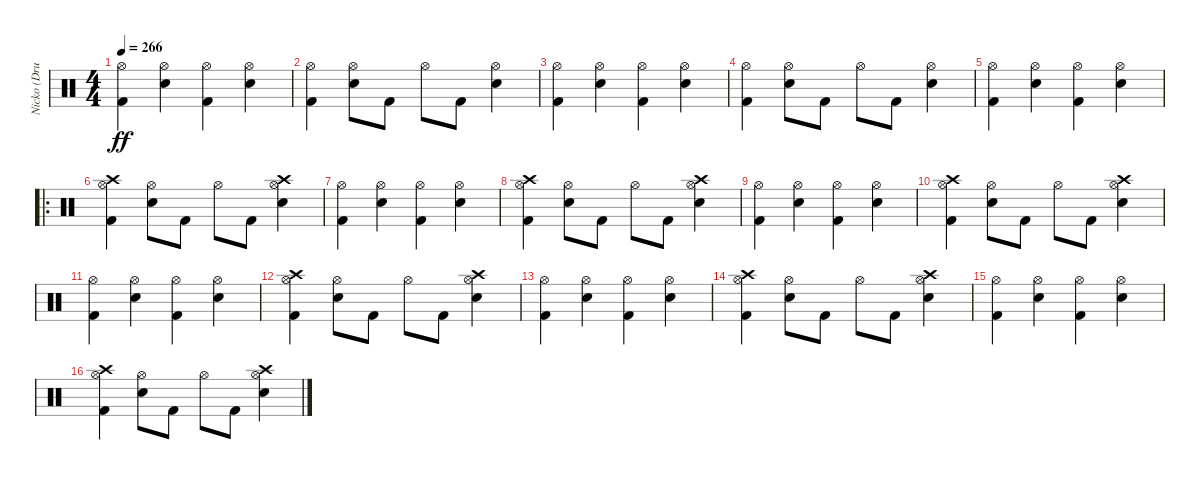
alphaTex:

\track ("Nicko (Drums)" "Nicko (Dru") {instrument percussion}
\staff {score}
\articulation defaults
\ts (4 4)
\tempo 266
\clef neutral
\ks c
("Kick (hit) 2" "Hi-Hat (open)").4{dy ff} ("Snare (hit) 2" "Hi-Hat (open)").4 ("Kick (hit) 2" "Hi-Hat (open)").4 ("Snare (hit) 2" "Hi-Hat (open)").4 |
("Kick (hit) 2" "Hi-Hat (open)").4 ("Snare (hit) 2" "Hi-Hat (open)").8 "Kick (hit) 2".8 "Hi-Hat (open)".8 "Kick (hit) 2".8 ("Snare (hit) 2" "Hi-Hat (open)").4 |
("Kick (hit) 2" "Hi-Hat (open)").4 ("Snare (hit) 2" "Hi-Hat (open)").4 ("Kick (hit) 2" "Hi-Hat (open)").4 ("Snare (hit) 2" "Hi-Hat (open)").4 |
("Kick (hit) 2" "Hi-Hat (open)").4 ("Snare (hit) 2" "Hi-Hat (open)").8 "Kick (hit) 2".8 "Hi-Hat (open)".8 "Kick (hit) 2".8 ("Snare (hit) 2" "Hi-Hat (open)").4 |
("Kick (hit) 2" "Hi-Hat (open)").4 ("Snare (hit) 2" "Hi-Hat (open)").4 ("Kick (hit) 2" "Hi-Hat (open)").4 ("Snare (hit) 2" "Hi-Hat (open)").4 |
\ro
("Kick (hit) 2" "Hi-Hat (open)" "Crash high (hit)").4 ("Snare (hit) 2" "Hi-Hat (open)").8 "Kick (hit) 2".8 "Hi-Hat (open)".8 "Kick (hit) 2".8 ("Snare (hit) 2" "Hi-Hat (open)" "Crash high (hit)").4 |
("Kick (hit) 2" "Hi-Hat (open)").4 ("Snare (hit) 2" "Hi-Hat (open)").4 ("Kick (hit) 2" "Hi-Hat (open)").4 ("Snare (hit) 2" "Hi-Hat (open)").4 |
("Kick (hit) 2" "Hi-Hat (open)" "Crash high (hit)").4 ("Snare (hit) 2" "Hi-Hat (open)").8 "Kick (hit) 2".8 "Hi-Hat (open)".8 "Kick (hit) 2".8 ("Snare (hit) 2" "Hi-Hat (open)" "Crash high (hit)").4 |
("Kick (hit) 2" "Hi-Hat (open)").4 ("Snare (hit) 2" "Hi-Hat (open)").4 ("Kick (hit) 2" "Hi-Hat (open)").4 ("Snare (hit) 2" "Hi-Hat (open)").4 |
("Kick (hit) 2" "Hi-Hat (open)" "Crash high (hit)").4 ("Snare (hit) 2" "Hi-Hat (open)").8 "Kick (hit) 2".8 "Hi-Hat (open)".8 "Kick (hit) 2".8 ("Snare (hit) 2" "Hi-Hat (open)" "Crash high (hit)").4 |
("Kick (hit) 2" "Hi-Hat (open)").4 ("Snare (hit) 2" "Hi-Hat (open)").4 ("Kick (hit) 2" "Hi-Hat (open)").4 ("Snare (hit) 2" "Hi-Hat (open)").4 |
("Kick (hit) 2" "Hi-Hat (open)" "Crash high (hit)").4 ("Snare (hit) 2" "Hi-Hat (open)").8 "Kick (hit) 2".8 "Hi-Hat (open)".8 "Kick (hit) 2".8 ("Snare (hit) 2" "Hi-Hat (open)" "Crash high (hit)").4 |
("Kick (hit) 2" "Hi-Hat (open)").4 ("Snare (hit) 2" "Hi-Hat (open)").4 ("Kick (hit) 2" "Hi-Hat (open)").4 ("Snare (hit) 2" "Hi-Hat (open)").4 |
("Kick (hit) 2" "Hi-Hat (open)" "Crash high (hit)").4 ("Snare (hit) 2" "Hi-Hat (open)").8 "Kick (hit) 2".8 "Hi-Hat (open)".8 "Kick (hit) 2".8 ("Snare (hit) 2" "Hi-Hat (open)" "Crash high (hit)").4 |
("Kick (hit) 2" "Hi-Hat (open)").4 ("Snare (hit) 2" "Hi-Hat (open)").4 ("Kick (hit) 2" "Hi-Hat (open)").4 ("Snare (hit) 2" "Hi-Hat (open)").4 |
("Kick (hit) 2" "Hi-Hat (open)" "Crash high (hit)").4 ("Snare (hit) 2" "Hi-Hat (open)").8 "Kick (hit) 2".8 "Hi-Hat (open)".8 "Kick (hit) 2".8 ("Snare (hit) 2" "Hi-Hat (open)" "Crash high (hit)").4
